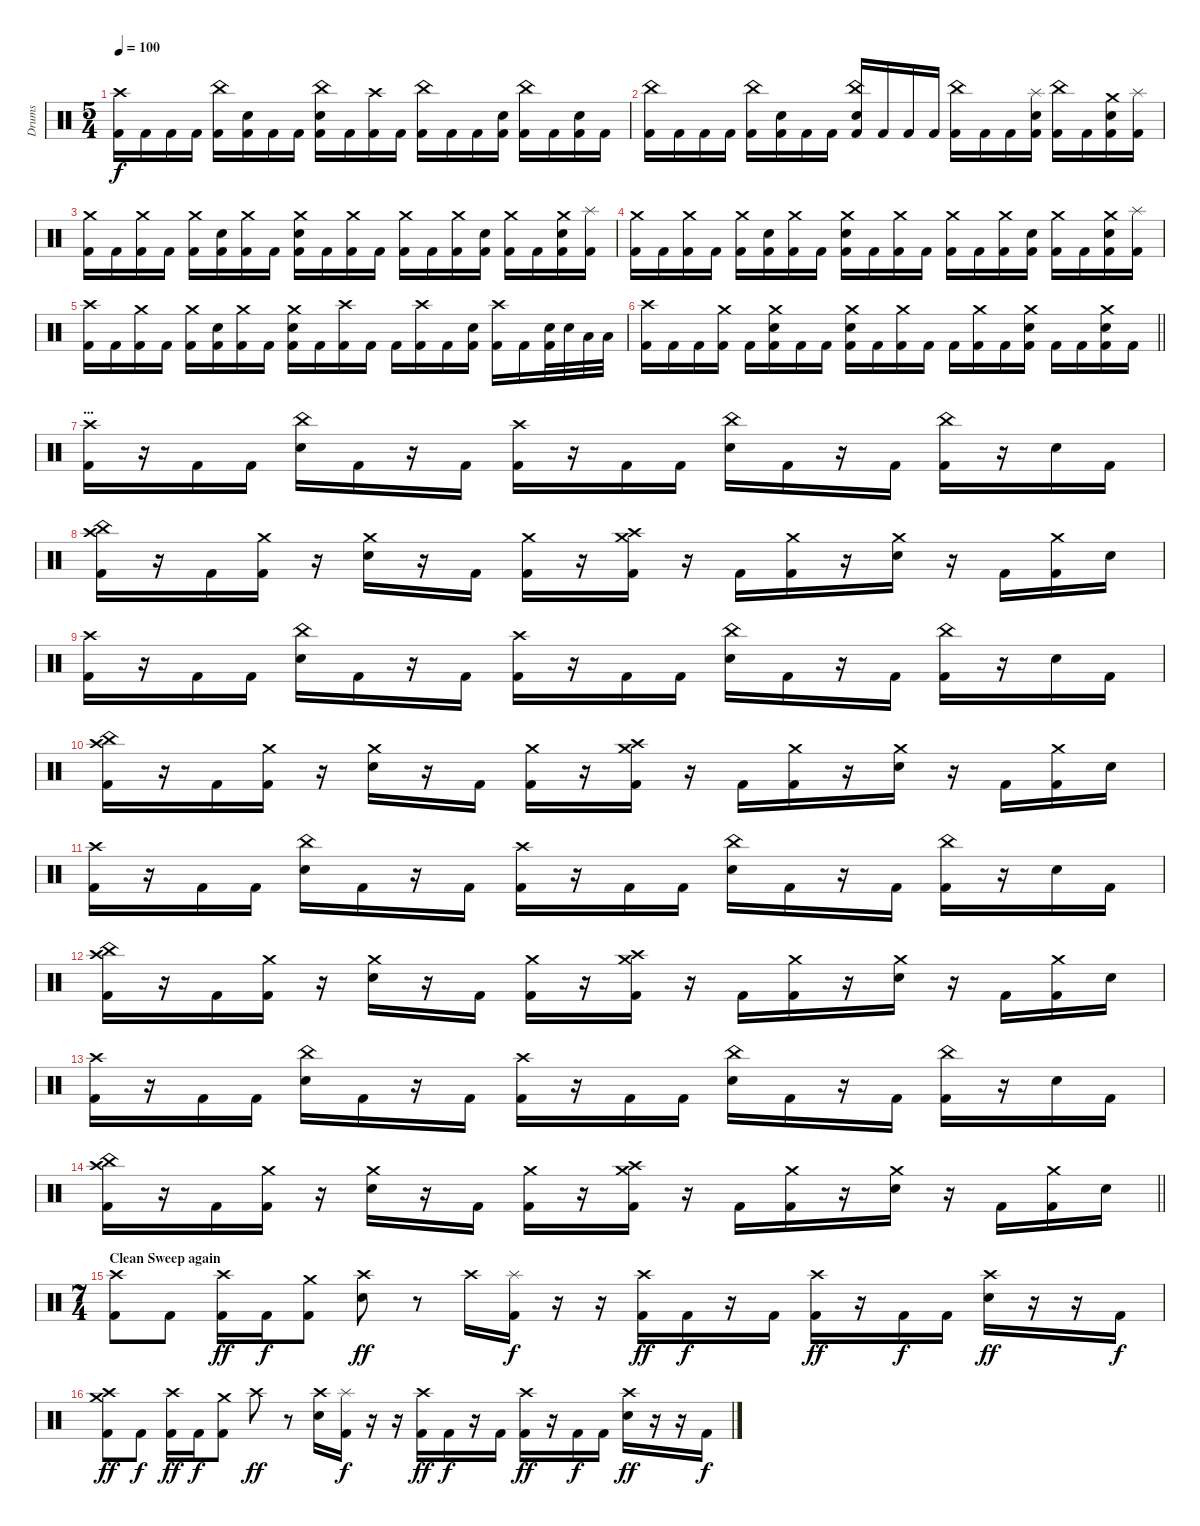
\track ("Drums" "Drums") {instrument percussion}
\staff {score}
\articulation defaults
\ts (5 4)
\tempo 100
\clef neutral
\ks c
("Crash high (hit)" "Kick (hit) 2").16{dy f} "Kick (hit) 2".16 "Kick (hit) 2".16 "Kick (hit) 2".16 ("China (hit)" "Kick (hit) 2").16 ("Electric Snare (hit)" "Kick (hit) 2").16 "Kick (hit) 2".16 "Kick (hit) 2".16 ("China (hit)" "Electric Snare (hit)" "Kick (hit) 2").16 "Kick (hit) 2".16 ("Crash high (hit)" "Kick (hit) 2").16 "Kick (hit) 2".16 ("China (hit)" "Kick (hit) 2").16 "Kick (hit) 2".16 "Kick (hit) 2".16 ("Electric Snare (hit)" "Kick (hit) 2").16 ("China (hit)" "Kick (hit) 2").16 "Kick (hit) 2".16 ("Electric Snare (hit)" "Kick (hit) 2").16 "Kick (hit) 2".16 |
("China (hit)" "Kick (hit) 2").16 "Kick (hit) 2".16 "Kick (hit) 2".16 "Kick (hit) 2".16 ("China (hit)" "Kick (hit) 2").16 ("Electric Snare (hit)" "Kick (hit) 2").16 "Kick (hit) 2".16 "Kick (hit) 2".16 ("China (hit)" "Electric Snare (hit)" "Kick (hit) 2").16 "Kick (hit) 2".16 "Kick (hit) 2".16 "Kick (hit) 2".16 ("China (hit)" "Kick (hit) 2").16 "Kick (hit) 2".16 "Kick (hit) 2".16 ("Splash (hit)" "Electric Snare (hit)" "Kick (hit) 2").16 ("China (hit)" "Kick (hit) 2").16 "Kick (hit) 2".16 ("Crash medium (hit)" "Electric Snare (hit)" "Kick (hit) 2").16 ("Splash (hit)" "Kick (hit) 2").16 |
("Crash medium (hit)" "Kick (hit) 2").16 "Kick (hit) 2".16 ("Crash medium (hit)" "Kick (hit) 2").16 "Kick (hit) 2".16 ("Crash medium (hit)" "Kick (hit) 2").16 ("Electric Snare (hit)" "Kick (hit) 2").16 ("Crash medium (hit)" "Kick (hit) 2").16 "Kick (hit) 2".16 ("Crash medium (hit)" "Electric Snare (hit)" "Kick (hit) 2").16 "Kick (hit) 2".16 ("Crash medium (hit)" "Kick (hit) 2").16 "Kick (hit) 2".16 ("Crash medium (hit)" "Kick (hit) 2").16 "Kick (hit) 2".16 ("Crash medium (hit)" "Kick (hit) 2").16 ("Electric Snare (hit)" "Kick (hit) 2").16 ("Crash medium (hit)" "Kick (hit) 2").16 "Kick (hit) 2".16 ("Crash medium (hit)" "Electric Snare (hit)" "Kick (hit) 2").16 ("Splash (hit)" "Kick (hit) 2").16 |
("Crash medium (hit)" "Kick (hit) 2").16 "Kick (hit) 2".16 ("Crash medium (hit)" "Kick (hit) 2").16 "Kick (hit) 2".16 ("Crash medium (hit)" "Kick (hit) 2").16 ("Electric Snare (hit)" "Kick (hit) 2").16 ("Crash medium (hit)" "Kick (hit) 2").16 "Kick (hit) 2".16 ("Crash medium (hit)" "Electric Snare (hit)" "Kick (hit) 2").16 "Kick (hit) 2".16 ("Crash medium (hit)" "Kick (hit) 2").16 "Kick (hit) 2".16 ("Crash medium (hit)" "Kick (hit) 2").16 "Kick (hit) 2".16 ("Crash medium (hit)" "Kick (hit) 2").16 ("Electric Snare (hit)" "Kick (hit) 2").16 ("Crash medium (hit)" "Kick (hit) 2").16 "Kick (hit) 2".16 ("Crash medium (hit)" "Electric Snare (hit)" "Kick (hit) 2").16 ("Splash (hit)" "Kick (hit) 2").16 |
("Crash high (hit)" "Kick (hit) 2").16 "Kick (hit) 2".16 ("Crash medium (hit)" "Kick (hit) 2").16 "Kick (hit) 2".16 ("Crash medium (hit)" "Kick (hit) 2").16 ("Electric Snare (hit)" "Kick (hit) 2").16 ("Crash medium (hit)" "Kick (hit) 2").16 "Kick (hit) 2".16 ("Crash medium (hit)" "Electric Snare (hit)" "Kick (hit) 2").16 "Kick (hit) 2".16 ("Crash high (hit)" "Kick (hit) 2").16 "Kick (hit) 2".16 "Kick (hit) 2".16 ("Crash high (hit)" "Kick (hit) 2").16 "Kick (hit) 2".16 ("Electric Snare (hit)" "Kick (hit) 2").16 ("Crash high (hit)" "Kick (hit) 2").16 "Kick (hit) 2".16 ("Electric Snare (hit)" "Kick (hit) 2").32 "Electric Snare (hit)".32 "Low Tom (hit)".32 "Low Tom (hit)".32 |
\barLineRight lightlight
("Crash high (hit)" "Kick (hit) 2").16 "Kick (hit) 2".16 "Kick (hit) 2".16 ("Crash medium (hit)" "Kick (hit) 2").16 "Kick (hit) 2".16 ("Crash medium (hit)" "Electric Snare (hit)" "Kick (hit) 2").16 "Kick (hit) 2".16 "Kick (hit) 2".16 ("Crash medium (hit)" "Electric Snare (hit)" "Kick (hit) 2").16 "Kick (hit) 2".16 ("Crash medium (hit)" "Kick (hit) 2").16 "Kick (hit) 2".16 "Kick (hit) 2".16 ("Crash medium (hit)" "Kick (hit) 2").16 "Kick (hit) 2".16 ("Crash medium (hit)" "Electric Snare (hit)" "Kick (hit) 2").16 "Kick (hit) 2".16 "Kick (hit) 2".16 ("Crash medium (hit)" "Electric Snare (hit)" "Kick (hit) 2").16 "Kick (hit) 2".16 |
\section ("" "...")
("Crash high (hit)" "Kick (hit) 2").16 r.16 "Kick (hit) 2".16 "Kick (hit) 2".16 ("China (hit)" "Electric Snare (hit)").16 "Kick (hit) 2".16 r.16 "Kick (hit) 2".16 ("Crash high (hit)" "Kick (hit) 2").16 r.16 "Kick (hit) 2".16 "Kick (hit) 2".16 ("China (hit)" "Electric Snare (hit)").16 "Kick (hit) 2".16 r.16 "Kick (hit) 2".16 ("China (hit)" "Kick (hit) 2").16 r.16 "Electric Snare (hit)".16 "Kick (hit) 2".16 |
("China (hit)" "Crash high (hit)" "Kick (hit) 2").16 r.16 "Kick (hit) 2".16 ("Crash medium (hit)" "Kick (hit) 2").16 r.16 ("Crash medium (hit)" "Electric Snare (hit)").16 r.16 "Kick (hit) 2".16 ("Crash medium (hit)" "Kick (hit) 2").16 r.16 ("Crash medium (hit)" "Crash high (hit)" "Kick (hit) 2").16 r.16 "Kick (hit) 2".16 ("Crash medium (hit)" "Kick (hit) 2").16 r.16 ("Crash medium (hit)" "Electric Snare (hit)").16 r.16 "Kick (hit) 2".16 ("Crash medium (hit)" "Kick (hit) 2").16 "Electric Snare (hit)".16 |
("Crash high (hit)" "Kick (hit) 2").16 r.16 "Kick (hit) 2".16 "Kick (hit) 2".16 ("China (hit)" "Electric Snare (hit)").16 "Kick (hit) 2".16 r.16 "Kick (hit) 2".16 ("Crash high (hit)" "Kick (hit) 2").16 r.16 "Kick (hit) 2".16 "Kick (hit) 2".16 ("China (hit)" "Electric Snare (hit)").16 "Kick (hit) 2".16 r.16 "Kick (hit) 2".16 ("China (hit)" "Kick (hit) 2").16 r.16 "Electric Snare (hit)".16 "Kick (hit) 2".16 |
("China (hit)" "Crash high (hit)" "Kick (hit) 2").16 r.16 "Kick (hit) 2".16 ("Crash medium (hit)" "Kick (hit) 2").16 r.16 ("Crash medium (hit)" "Electric Snare (hit)").16 r.16 "Kick (hit) 2".16 ("Crash medium (hit)" "Kick (hit) 2").16 r.16 ("Crash medium (hit)" "Crash high (hit)" "Kick (hit) 2").16 r.16 "Kick (hit) 2".16 ("Crash medium (hit)" "Kick (hit) 2").16 r.16 ("Crash medium (hit)" "Electric Snare (hit)").16 r.16 "Kick (hit) 2".16 ("Crash medium (hit)" "Kick (hit) 2").16 "Electric Snare (hit)".16 |
("Crash high (hit)" "Kick (hit) 2").16 r.16 "Kick (hit) 2".16 "Kick (hit) 2".16 ("China (hit)" "Electric Snare (hit)").16 "Kick (hit) 2".16 r.16 "Kick (hit) 2".16 ("Crash high (hit)" "Kick (hit) 2").16 r.16 "Kick (hit) 2".16 "Kick (hit) 2".16 ("China (hit)" "Electric Snare (hit)").16 "Kick (hit) 2".16 r.16 "Kick (hit) 2".16 ("China (hit)" "Kick (hit) 2").16 r.16 "Electric Snare (hit)".16 "Kick (hit) 2".16 |
("China (hit)" "Crash high (hit)" "Kick (hit) 2").16 r.16 "Kick (hit) 2".16 ("Crash medium (hit)" "Kick (hit) 2").16 r.16 ("Crash medium (hit)" "Electric Snare (hit)").16 r.16 "Kick (hit) 2".16 ("Crash medium (hit)" "Kick (hit) 2").16 r.16 ("Crash medium (hit)" "Crash high (hit)" "Kick (hit) 2").16 r.16 "Kick (hit) 2".16 ("Crash medium (hit)" "Kick (hit) 2").16 r.16 ("Crash medium (hit)" "Electric Snare (hit)").16 r.16 "Kick (hit) 2".16 ("Crash medium (hit)" "Kick (hit) 2").16 "Electric Snare (hit)".16 |
("Crash high (hit)" "Kick (hit) 2").16 r.16 "Kick (hit) 2".16 "Kick (hit) 2".16 ("China (hit)" "Electric Snare (hit)").16 "Kick (hit) 2".16 r.16 "Kick (hit) 2".16 ("Crash high (hit)" "Kick (hit) 2").16 r.16 "Kick (hit) 2".16 "Kick (hit) 2".16 ("China (hit)" "Electric Snare (hit)").16 "Kick (hit) 2".16 r.16 "Kick (hit) 2".16 ("China (hit)" "Kick (hit) 2").16 r.16 "Electric Snare (hit)".16 "Kick (hit) 2".16 |
\barLineRight lightlight
("China (hit)" "Crash high (hit)" "Kick (hit) 2").16 r.16 "Kick (hit) 2".16 ("Crash medium (hit)" "Kick (hit) 2").16 r.16 ("Crash medium (hit)" "Electric Snare (hit)").16 r.16 "Kick (hit) 2".16 ("Crash medium (hit)" "Kick (hit) 2").16 r.16 ("Crash medium (hit)" "Crash high (hit)" "Kick (hit) 2").16 r.16 "Kick (hit) 2".16 ("Crash medium (hit)" "Kick (hit) 2").16 r.16 ("Crash medium (hit)" "Electric Snare (hit)").16 r.16 "Kick (hit) 2".16 ("Crash medium (hit)" "Kick (hit) 2").16 "Electric Snare (hit)".16 |
\ts (7 4)
\section ("" "Clean Sweep again")
("Crash high (hit)" "Kick (hit) 2").8 "Kick (hit) 2".8 ("Crash high (hit)" "Kick (hit) 2").16{dy ff} "Kick (hit) 2".16{dy f} ("Crash medium (hit)" "Kick (hit) 2").8 ("Crash high (hit)" "Electric Snare (hit)").8{dy ff} r.8 "Crash high (hit)".16 ("Splash (hit)" "Kick (hit) 2").16{dy f} r.16 r.16 ("Crash high (hit)" "Kick (hit) 2").16{dy ff} "Kick (hit) 2".16{dy f} r.16 "Kick (hit) 2".16 ("Crash high (hit)" "Kick (hit) 2").16{dy ff} r.16 "Kick (hit) 2".16{dy f} "Kick (hit) 2".16 ("Crash high (hit)" "Electric Snare (hit)").16{dy ff} r.16 r.16 "Kick (hit) 2".16{dy f} |
("Crash high (hit)" "Crash medium (hit)" "Kick (hit) 2").8{dy ff} "Kick (hit) 2".8{dy f} ("Crash high (hit)" "Kick (hit) 2").16{dy ff} "Kick (hit) 2".16{dy f} ("Crash medium (hit)" "Kick (hit) 2").8 "Crash high (hit)".8{dy ff} r.8 ("Crash high (hit)" "Electric Snare (hit)").16 ("Splash (hit)" "Kick (hit) 2").16{dy f} r.16 r.16 ("Crash high (hit)" "Kick (hit) 2").16{dy ff} "Kick (hit) 2".16{dy f} r.16 "Kick (hit) 2".16 ("Crash high (hit)" "Kick (hit) 2").16{dy ff} r.16 "Kick (hit) 2".16{dy f} "Kick (hit) 2".16 ("Crash high (hit)" "Electric Snare (hit)").16{dy ff} r.16 r.16 "Kick (hit) 2".16{dy f}
